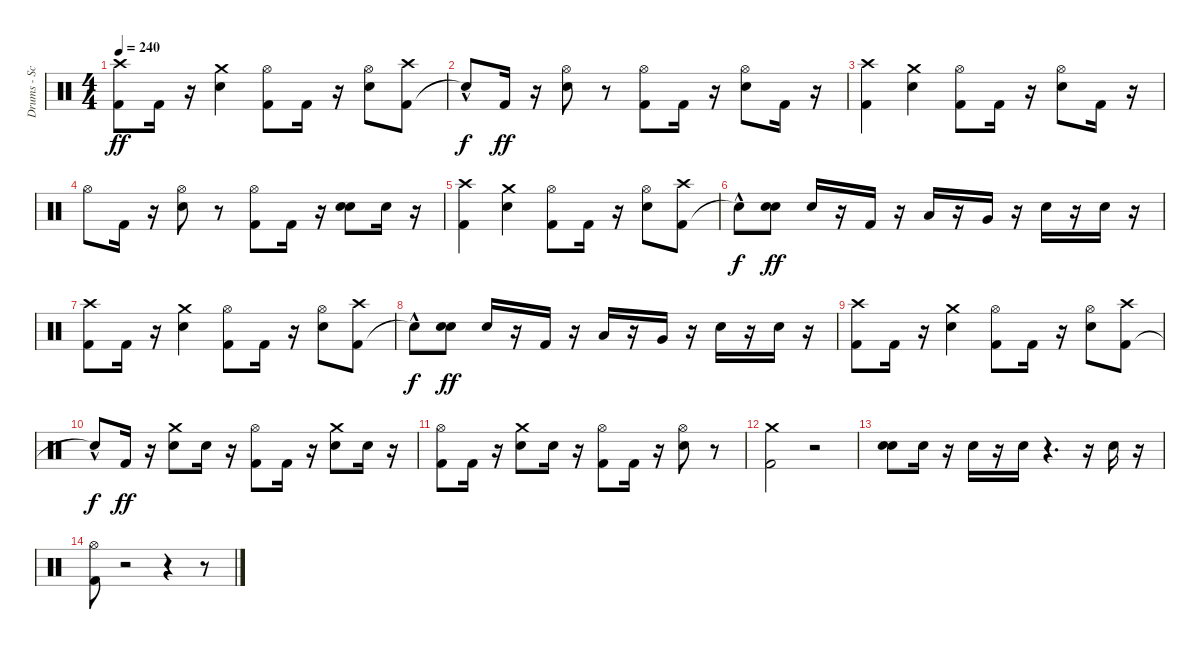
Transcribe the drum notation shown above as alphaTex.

\track ("Drums - Scott" "Drums - Sc") {instrument percussion}
\staff {score}
\articulation defaults
\ts (4 4)
\tempo 240
\clef neutral
\ks c
("Kick (hit) 2" "Crash high (hit)").8{dy ff} "Kick (hit) 2".16 r.16 ("Electric Snare (hit)" "Crash medium (hit)").4 ("Kick (hit) 2" "Hi-Hat (open)").8 "Kick (hit) 2".16 r.16 ("Electric Snare (hit)" "Hi-Hat (open)").8 ("Kick (hit) 2" "Crash high (hit)").8 |
"Snare (hit)"{hac t}.8{dy f} "Kick (hit) 2".16{dy ff} r.16 ("Electric Snare (hit)" "Hi-Hat (open)").8 r.8 ("Kick (hit) 2" "Hi-Hat (open)").8 "Kick (hit) 2".16 r.16 ("Electric Snare (hit)" "Hi-Hat (open)").8 "Kick (hit) 2".16 r.16 |
("Kick (hit) 2" "Crash high (hit)").4 ("Electric Snare (hit)" "Crash medium (hit)").4 ("Kick (hit) 2" "Hi-Hat (open)").8 "Kick (hit) 2".16 r.16 ("Electric Snare (hit)" "Hi-Hat (open)").8 "Kick (hit) 2".16 r.16 |
"Hi-Hat (open)".8 "Kick (hit) 2".16 r.16 ("Electric Snare (hit)" "Hi-Hat (open)").8 r.8 ("Kick (hit) 2" "Hi-Hat (open)").8 "Kick (hit) 2".16 r.16 ("Electric Snare (hit)" "Electric Snare (hit)").8 "Electric Snare (hit)".16 r.16 |
("Kick (hit) 2" "Crash high (hit)").4 ("Electric Snare (hit)" "Crash medium (hit)").4 ("Kick (hit) 2" "Hi-Hat (open)").8 "Kick (hit) 2".16 r.16 ("Electric Snare (hit)" "Hi-Hat (open)").8 ("Kick (hit) 2" "Crash high (hit)").8 |
"Snare (hit)"{hac t}.8{dy f} ("Electric Snare (hit)" "Electric Snare (hit)").8{dy ff} "Electric Snare (hit)".16 r.16 "Kick (hit) 2".16 r.16 "Low Tom (hit)".16 r.16 "Very Low Tom (hit)".16 r.16 "Electric Snare (hit)".16 r.16 "Electric Snare (hit)".16 r.16 |
("Kick (hit) 2" "Crash high (hit)").8 "Kick (hit) 2".16 r.16 ("Electric Snare (hit)" "Crash medium (hit)").4 ("Kick (hit) 2" "Hi-Hat (open)").8 "Kick (hit) 2".16 r.16 ("Electric Snare (hit)" "Hi-Hat (open)").8 ("Kick (hit) 2" "Crash high (hit)").8 |
"Snare (hit)"{hac t}.8{dy f} ("Electric Snare (hit)" "Electric Snare (hit)").8{dy ff} "Electric Snare (hit)".16 r.16 "Kick (hit) 2".16 r.16 "Low Tom (hit)".16 r.16 "Very Low Tom (hit)".16 r.16 "Electric Snare (hit)".16 r.16 "Electric Snare (hit)".16 r.16 |
("Kick (hit) 2" "Crash high (hit)").8 "Kick (hit) 2".16 r.16 ("Electric Snare (hit)" "Crash medium (hit)").4 ("Kick (hit) 2" "Hi-Hat (open)").8 "Kick (hit) 2".16 r.16 ("Electric Snare (hit)" "Hi-Hat (open)").8 ("Kick (hit) 2" "Crash high (hit)").8 |
"Snare (hit)"{hac t}.8{dy f} "Kick (hit) 2".16{dy ff} r.16 ("Electric Snare (hit)" "Crash medium (hit)").8 "Electric Snare (hit)".16 r.16 ("Kick (hit) 2" "Hi-Hat (open)").8 "Kick (hit) 2".16 r.16 ("Electric Snare (hit)" "Crash medium (hit)").8 "Electric Snare (hit)".16 r.16 |
("Kick (hit) 2" "Hi-Hat (open)").8 "Kick (hit) 2".16 r.16 ("Electric Snare (hit)" "Crash medium (hit)").8 "Electric Snare (hit)".16 r.16 ("Kick (hit) 2" "Hi-Hat (open)").8 "Kick (hit) 2".16 r.16 ("Electric Snare (hit)" "Hi-Hat (open)").8 r.8 |
("Kick (hit) 2" "Crash medium (hit)").2 r.2 |
("Electric Snare (hit)" "Electric Snare (hit)").8 "Electric Snare (hit)".16 r.16 "Electric Snare (hit)".16 r.16 "Electric Snare (hit)".16 r.4{d} r.16 "Electric Snare (hit)".16 r.16 |
("Kick (hit) 2" "Hi-Hat (open)").8 r.2 r.4 r.8
